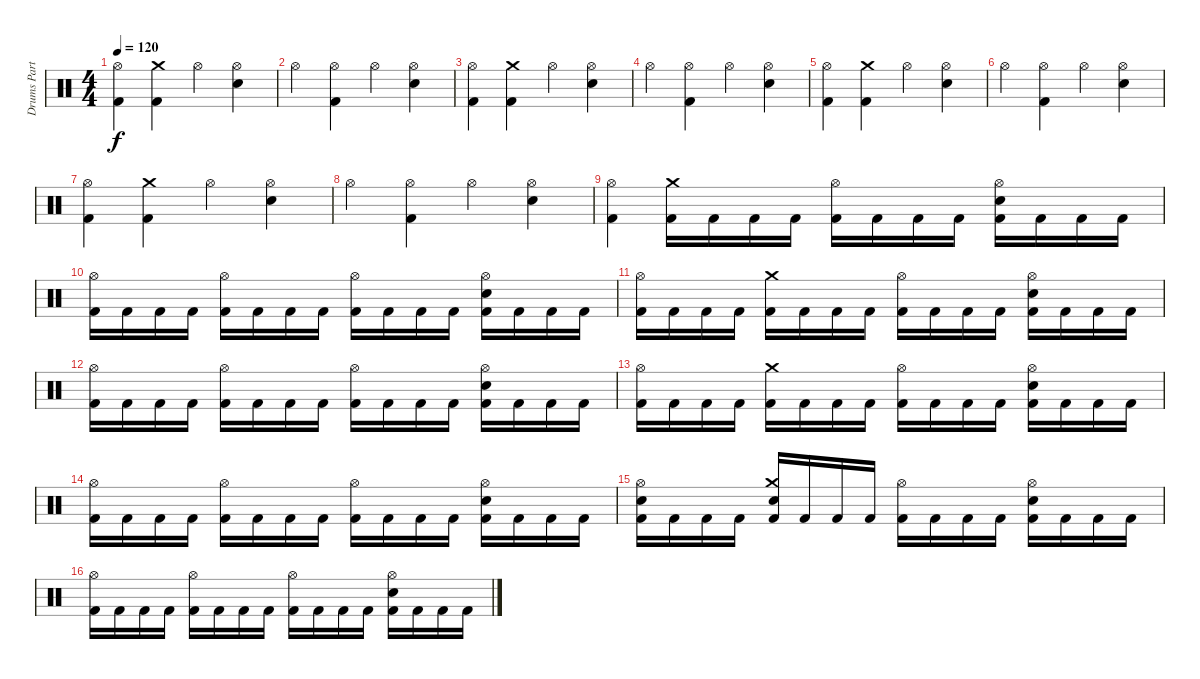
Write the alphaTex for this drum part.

\track ("Drums Part" "Drums Part") {instrument percussion}
\staff {score}
\articulation defaults
\ts (4 4)
\tempo 120
\clef neutral
\ks c
("Hi-Hat (open)" "Kick (hit) 2").4{dy f} ("Crash medium (hit)" "Kick (hit) 2").4 "Hi-Hat (open)".4 ("Hi-Hat (open)" "Electric Snare (hit)").4 |
"Hi-Hat (open)".4 ("Hi-Hat (open)" "Kick (hit) 2").4 "Hi-Hat (open)".4 ("Hi-Hat (open)" "Electric Snare (hit)").4 |
("Hi-Hat (open)" "Kick (hit) 2").4 ("Crash medium (hit)" "Kick (hit) 2").4 "Hi-Hat (open)".4 ("Hi-Hat (open)" "Electric Snare (hit)").4 |
"Hi-Hat (open)".4 ("Hi-Hat (open)" "Kick (hit) 2").4 "Hi-Hat (open)".4 ("Hi-Hat (open)" "Electric Snare (hit)").4 |
("Hi-Hat (open)" "Kick (hit) 2").4 ("Crash medium (hit)" "Kick (hit) 2").4 "Hi-Hat (open)".4 ("Hi-Hat (open)" "Electric Snare (hit)").4 |
"Hi-Hat (open)".4 ("Hi-Hat (open)" "Kick (hit) 2").4 "Hi-Hat (open)".4 ("Hi-Hat (open)" "Electric Snare (hit)").4 |
("Hi-Hat (open)" "Kick (hit) 2").4 ("Crash medium (hit)" "Kick (hit) 2").4 "Hi-Hat (open)".4 ("Hi-Hat (open)" "Electric Snare (hit)").4 |
"Hi-Hat (open)".4 ("Hi-Hat (open)" "Kick (hit) 2").4 "Hi-Hat (open)".4 ("Hi-Hat (open)" "Electric Snare (hit)").4 |
("Hi-Hat (open)" "Kick (hit) 2").4 ("Crash medium (hit)" "Kick (hit) 2").16 "Kick (hit) 2".16 "Kick (hit) 2".16 "Kick (hit) 2".16 ("Hi-Hat (open)" "Kick (hit) 2").16 "Kick (hit) 2".16 "Kick (hit) 2".16 "Kick (hit) 2".16 ("Hi-Hat (open)" "Electric Snare (hit)" "Kick (hit) 2").16 "Kick (hit) 2".16 "Kick (hit) 2".16 "Kick (hit) 2".16 |
("Hi-Hat (open)" "Kick (hit) 2").16 "Kick (hit) 2".16 "Kick (hit) 2".16 "Kick (hit) 2".16 ("Hi-Hat (open)" "Kick (hit) 2").16 "Kick (hit) 2".16 "Kick (hit) 2".16 "Kick (hit) 2".16 ("Hi-Hat (open)" "Kick (hit) 2").16 "Kick (hit) 2".16 "Kick (hit) 2".16 "Kick (hit) 2".16 ("Hi-Hat (open)" "Electric Snare (hit)" "Kick (hit) 2").16 "Kick (hit) 2".16 "Kick (hit) 2".16 "Kick (hit) 2".16 |
("Hi-Hat (open)" "Kick (hit) 2").16 "Kick (hit) 2".16 "Kick (hit) 2".16 "Kick (hit) 2".16 ("Crash medium (hit)" "Kick (hit) 2").16 "Kick (hit) 2".16 "Kick (hit) 2".16 "Kick (hit) 2".16 ("Hi-Hat (open)" "Kick (hit) 2").16 "Kick (hit) 2".16 "Kick (hit) 2".16 "Kick (hit) 2".16 ("Hi-Hat (open)" "Electric Snare (hit)" "Kick (hit) 2").16 "Kick (hit) 2".16 "Kick (hit) 2".16 "Kick (hit) 2".16 |
("Hi-Hat (open)" "Kick (hit) 2").16 "Kick (hit) 2".16 "Kick (hit) 2".16 "Kick (hit) 2".16 ("Hi-Hat (open)" "Kick (hit) 2").16 "Kick (hit) 2".16 "Kick (hit) 2".16 "Kick (hit) 2".16 ("Hi-Hat (open)" "Kick (hit) 2").16 "Kick (hit) 2".16 "Kick (hit) 2".16 "Kick (hit) 2".16 ("Hi-Hat (open)" "Electric Snare (hit)" "Kick (hit) 2").16 "Kick (hit) 2".16 "Kick (hit) 2".16 "Kick (hit) 2".16 |
("Hi-Hat (open)" "Kick (hit) 2").16 "Kick (hit) 2".16 "Kick (hit) 2".16 "Kick (hit) 2".16 ("Crash medium (hit)" "Kick (hit) 2").16 "Kick (hit) 2".16 "Kick (hit) 2".16 "Kick (hit) 2".16 ("Hi-Hat (open)" "Kick (hit) 2").16 "Kick (hit) 2".16 "Kick (hit) 2".16 "Kick (hit) 2".16 ("Hi-Hat (open)" "Electric Snare (hit)" "Kick (hit) 2").16 "Kick (hit) 2".16 "Kick (hit) 2".16 "Kick (hit) 2".16 |
("Hi-Hat (open)" "Kick (hit) 2").16 "Kick (hit) 2".16 "Kick (hit) 2".16 "Kick (hit) 2".16 ("Hi-Hat (open)" "Kick (hit) 2").16 "Kick (hit) 2".16 "Kick (hit) 2".16 "Kick (hit) 2".16 ("Hi-Hat (open)" "Kick (hit) 2").16 "Kick (hit) 2".16 "Kick (hit) 2".16 "Kick (hit) 2".16 ("Hi-Hat (open)" "Electric Snare (hit)" "Kick (hit) 2").16 "Kick (hit) 2".16 "Kick (hit) 2".16 "Kick (hit) 2".16 |
("Hi-Hat (open)" "Electric Snare (hit)" "Kick (hit) 2").16 "Kick (hit) 2".16 "Kick (hit) 2".16 "Kick (hit) 2".16 ("Crash medium (hit)" "Electric Snare (hit)" "Kick (hit) 2").16 "Kick (hit) 2".16 "Kick (hit) 2".16 "Kick (hit) 2".16 ("Hi-Hat (open)" "Kick (hit) 2").16 "Kick (hit) 2".16 "Kick (hit) 2".16 "Kick (hit) 2".16 ("Hi-Hat (open)" "Electric Snare (hit)" "Kick (hit) 2").16 "Kick (hit) 2".16 "Kick (hit) 2".16 "Kick (hit) 2".16 |
("Hi-Hat (open)" "Kick (hit) 2").16 "Kick (hit) 2".16 "Kick (hit) 2".16 "Kick (hit) 2".16 ("Hi-Hat (open)" "Kick (hit) 2").16 "Kick (hit) 2".16 "Kick (hit) 2".16 "Kick (hit) 2".16 ("Hi-Hat (open)" "Kick (hit) 2").16 "Kick (hit) 2".16 "Kick (hit) 2".16 "Kick (hit) 2".16 ("Hi-Hat (open)" "Electric Snare (hit)" "Kick (hit) 2").16 "Kick (hit) 2".16 "Kick (hit) 2".16 "Kick (hit) 2".16
